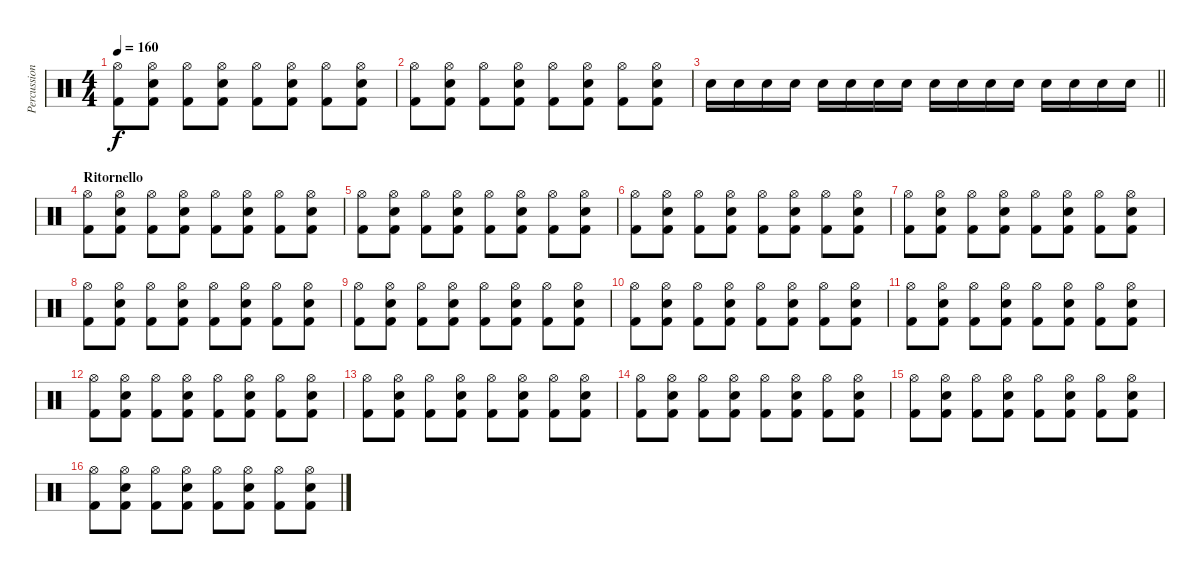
\track ("Percussioni" "Percussion") {instrument percussion}
\staff {score}
\articulation defaults
\ts (4 4)
\tempo 160
\clef neutral
\ks c
("Hi-Hat (open)" "Kick (hit) 2").8{dy f} ("Hi-Hat (open)" "Snare (hit) 2" "Kick (hit) 2").8 ("Hi-Hat (open)" "Kick (hit) 2").8 ("Hi-Hat (open)" "Snare (hit) 2" "Kick (hit) 2").8 ("Hi-Hat (open)" "Kick (hit) 2").8 ("Hi-Hat (open)" "Snare (hit) 2" "Kick (hit) 2").8 ("Hi-Hat (open)" "Kick (hit) 2").8 ("Hi-Hat (open)" "Snare (hit) 2" "Kick (hit) 2").8 |
("Hi-Hat (open)" "Kick (hit) 2").8 ("Hi-Hat (open)" "Snare (hit) 2" "Kick (hit) 2").8 ("Hi-Hat (open)" "Kick (hit) 2").8 ("Hi-Hat (open)" "Snare (hit) 2" "Kick (hit) 2").8 ("Hi-Hat (open)" "Kick (hit) 2").8 ("Hi-Hat (open)" "Snare (hit) 2" "Kick (hit) 2").8 ("Hi-Hat (open)" "Kick (hit) 2").8 ("Hi-Hat (open)" "Snare (hit) 2" "Kick (hit) 2").8 |
\barLineRight lightlight "Snare (hit) 2".16 "Snare (hit) 2".16 "Snare (hit) 2".16 "Snare (hit) 2".16 "Snare (hit) 2".16 "Snare (hit) 2".16 "Snare (hit) 2".16 "Snare (hit) 2".16 "Snare (hit) 2".16 "Snare (hit) 2".16 "Snare (hit) 2".16 "Snare (hit) 2".16 "Snare (hit) 2".16 "Snare (hit) 2".16 "Snare (hit) 2".16 "Snare (hit) 2".16
|
\section ("" "Ritornello")
("Hi-Hat (open)" "Kick (hit) 2").8 ("Hi-Hat (open)" "Snare (hit) 2" "Kick (hit) 2").8 ("Hi-Hat (open)" "Kick (hit) 2").8 ("Hi-Hat (open)" "Snare (hit) 2" "Kick (hit) 2").8 ("Hi-Hat (open)" "Kick (hit) 2").8 ("Hi-Hat (open)" "Snare (hit) 2" "Kick (hit) 2").8 ("Hi-Hat (open)" "Kick (hit) 2").8 ("Hi-Hat (open)" "Snare (hit) 2" "Kick (hit) 2").8 |
("Hi-Hat (open)" "Kick (hit) 2").8 ("Hi-Hat (open)" "Snare (hit) 2" "Kick (hit) 2").8 ("Hi-Hat (open)" "Kick (hit) 2").8 ("Hi-Hat (open)" "Snare (hit) 2" "Kick (hit) 2").8 ("Hi-Hat (open)" "Kick (hit) 2").8 ("Hi-Hat (open)" "Snare (hit) 2" "Kick (hit) 2").8 ("Hi-Hat (open)" "Kick (hit) 2").8 ("Hi-Hat (open)" "Snare (hit) 2" "Kick (hit) 2").8 |
("Hi-Hat (open)" "Kick (hit) 2").8 ("Hi-Hat (open)" "Snare (hit) 2" "Kick (hit) 2").8 ("Hi-Hat (open)" "Kick (hit) 2").8 ("Hi-Hat (open)" "Snare (hit) 2" "Kick (hit) 2").8 ("Hi-Hat (open)" "Kick (hit) 2").8 ("Hi-Hat (open)" "Snare (hit) 2" "Kick (hit) 2").8 ("Hi-Hat (open)" "Kick (hit) 2").8 ("Hi-Hat (open)" "Snare (hit) 2" "Kick (hit) 2").8 |
("Hi-Hat (open)" "Kick (hit) 2").8 ("Hi-Hat (open)" "Snare (hit) 2" "Kick (hit) 2").8 ("Hi-Hat (open)" "Kick (hit) 2").8 ("Hi-Hat (open)" "Snare (hit) 2" "Kick (hit) 2").8 ("Hi-Hat (open)" "Kick (hit) 2").8 ("Hi-Hat (open)" "Snare (hit) 2" "Kick (hit) 2").8 ("Hi-Hat (open)" "Kick (hit) 2").8 ("Hi-Hat (open)" "Snare (hit) 2" "Kick (hit) 2").8 |
("Hi-Hat (open)" "Kick (hit) 2").8 ("Hi-Hat (open)" "Snare (hit) 2" "Kick (hit) 2").8 ("Hi-Hat (open)" "Kick (hit) 2").8 ("Hi-Hat (open)" "Snare (hit) 2" "Kick (hit) 2").8 ("Hi-Hat (open)" "Kick (hit) 2").8 ("Hi-Hat (open)" "Snare (hit) 2" "Kick (hit) 2").8 ("Hi-Hat (open)" "Kick (hit) 2").8 ("Hi-Hat (open)" "Snare (hit) 2" "Kick (hit) 2").8 |
("Hi-Hat (open)" "Kick (hit) 2").8 ("Hi-Hat (open)" "Snare (hit) 2" "Kick (hit) 2").8 ("Hi-Hat (open)" "Kick (hit) 2").8 ("Hi-Hat (open)" "Snare (hit) 2" "Kick (hit) 2").8 ("Hi-Hat (open)" "Kick (hit) 2").8 ("Hi-Hat (open)" "Snare (hit) 2" "Kick (hit) 2").8 ("Hi-Hat (open)" "Kick (hit) 2").8 ("Hi-Hat (open)" "Snare (hit) 2" "Kick (hit) 2").8 |
("Hi-Hat (open)" "Kick (hit) 2").8 ("Hi-Hat (open)" "Snare (hit) 2" "Kick (hit) 2").8 ("Hi-Hat (open)" "Kick (hit) 2").8 ("Hi-Hat (open)" "Snare (hit) 2" "Kick (hit) 2").8 ("Hi-Hat (open)" "Kick (hit) 2").8 ("Hi-Hat (open)" "Snare (hit) 2" "Kick (hit) 2").8 ("Hi-Hat (open)" "Kick (hit) 2").8 ("Hi-Hat (open)" "Snare (hit) 2" "Kick (hit) 2").8 |
("Hi-Hat (open)" "Kick (hit) 2").8 ("Hi-Hat (open)" "Snare (hit) 2" "Kick (hit) 2").8 ("Hi-Hat (open)" "Kick (hit) 2").8 ("Hi-Hat (open)" "Snare (hit) 2" "Kick (hit) 2").8 ("Hi-Hat (open)" "Kick (hit) 2").8 ("Hi-Hat (open)" "Snare (hit) 2" "Kick (hit) 2").8 ("Hi-Hat (open)" "Kick (hit) 2").8 ("Hi-Hat (open)" "Snare (hit) 2" "Kick (hit) 2").8 |
("Hi-Hat (open)" "Kick (hit) 2").8 ("Hi-Hat (open)" "Snare (hit) 2" "Kick (hit) 2").8 ("Hi-Hat (open)" "Kick (hit) 2").8 ("Hi-Hat (open)" "Snare (hit) 2" "Kick (hit) 2").8 ("Hi-Hat (open)" "Kick (hit) 2").8 ("Hi-Hat (open)" "Snare (hit) 2" "Kick (hit) 2").8 ("Hi-Hat (open)" "Kick (hit) 2").8 ("Hi-Hat (open)" "Snare (hit) 2" "Kick (hit) 2").8 |
("Hi-Hat (open)" "Kick (hit) 2").8 ("Hi-Hat (open)" "Snare (hit) 2" "Kick (hit) 2").8 ("Hi-Hat (open)" "Kick (hit) 2").8 ("Hi-Hat (open)" "Snare (hit) 2" "Kick (hit) 2").8 ("Hi-Hat (open)" "Kick (hit) 2").8 ("Hi-Hat (open)" "Snare (hit) 2" "Kick (hit) 2").8 ("Hi-Hat (open)" "Kick (hit) 2").8 ("Hi-Hat (open)" "Snare (hit) 2" "Kick (hit) 2").8 |
("Hi-Hat (open)" "Kick (hit) 2").8 ("Hi-Hat (open)" "Snare (hit) 2" "Kick (hit) 2").8 ("Hi-Hat (open)" "Kick (hit) 2").8 ("Hi-Hat (open)" "Snare (hit) 2" "Kick (hit) 2").8 ("Hi-Hat (open)" "Kick (hit) 2").8 ("Hi-Hat (open)" "Snare (hit) 2" "Kick (hit) 2").8 ("Hi-Hat (open)" "Kick (hit) 2").8 ("Hi-Hat (open)" "Snare (hit) 2" "Kick (hit) 2").8 |
("Hi-Hat (open)" "Kick (hit) 2").8 ("Hi-Hat (open)" "Snare (hit) 2" "Kick (hit) 2").8 ("Hi-Hat (open)" "Kick (hit) 2").8 ("Hi-Hat (open)" "Snare (hit) 2" "Kick (hit) 2").8 ("Hi-Hat (open)" "Kick (hit) 2").8 ("Hi-Hat (open)" "Snare (hit) 2" "Kick (hit) 2").8 ("Hi-Hat (open)" "Kick (hit) 2").8 ("Hi-Hat (open)" "Snare (hit) 2" "Kick (hit) 2").8 |
("Hi-Hat (open)" "Kick (hit) 2").8 ("Hi-Hat (open)" "Snare (hit) 2" "Kick (hit) 2").8 ("Hi-Hat (open)" "Kick (hit) 2").8 ("Hi-Hat (open)" "Snare (hit) 2" "Kick (hit) 2").8 ("Hi-Hat (open)" "Kick (hit) 2").8 ("Hi-Hat (open)" "Snare (hit) 2" "Kick (hit) 2").8 ("Hi-Hat (open)" "Kick (hit) 2").8 ("Hi-Hat (open)" "Snare (hit) 2" "Kick (hit) 2").8
